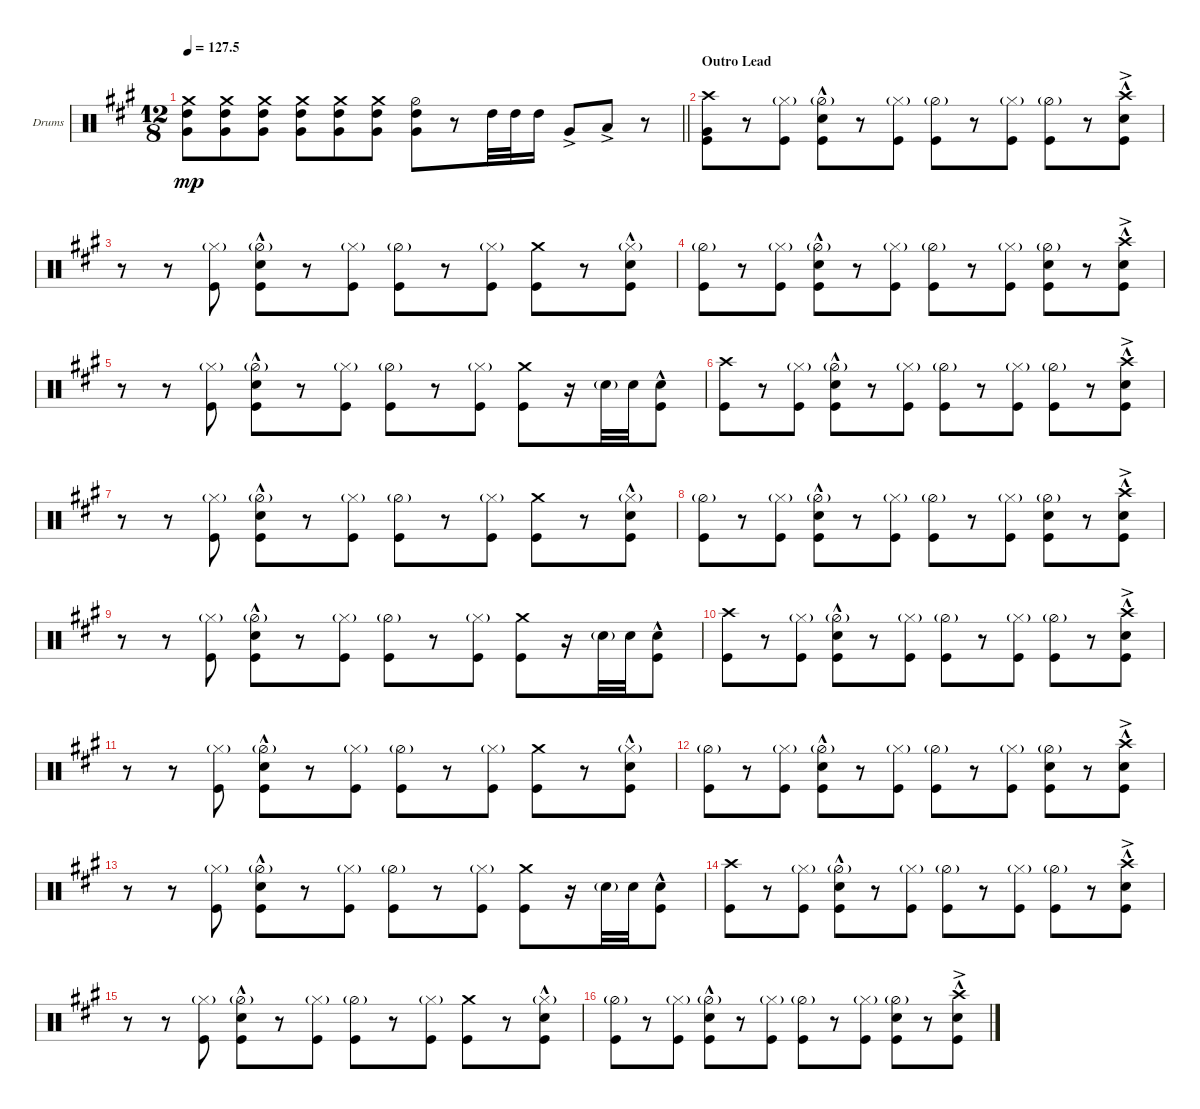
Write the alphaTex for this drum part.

\bracketExtendMode groupsimilarinstruments
\firstSystemTrackNameOrientation horizontal
\otherSystemsTrackNameOrientation horizontal
\track ("Drumkit" "Drums") {instrument percussion}
\staff {score}
\articulation defaults
\ts (12 8)
\tempo
127.5
\accidentals auto
\clef neutral
\ottava regular
\simile none
\scale
0.333333
\barLineRight lightlight
\ks a
("Crash medium (hit)" "High Tom (hit)" "Very Low Tom (hit)").8{dy mp} ("Crash medium (hit)" "High Tom (hit)" "Very Low Tom (hit)").8 ("Crash medium (hit)" "High Tom (hit)" "Very Low Tom (hit)").8 ("Crash medium (hit)" "High Tom (hit)" "Very Low Tom (hit)").8 ("Crash medium (hit)" "High Tom (hit)" "Very Low Tom (hit)").8 ("Crash medium (hit)" "High Tom (hit)" "Very Low Tom (hit)").8 ("High Tom (hit)" "Very Low Tom (hit)" "Hi-Hat (half)").8 r.8 "High Tom (hit)".32 "High Tom (hit)".32 "High Tom (hit)".16 "Very Low Tom (hit)"{ac}.8 "Low Tom (hit)"{ac}.8 r.8 |
\section ("" "Outro Lead")
\scale
0.333333 ("Kick (hit)" "Crash high (hit)" "Very Low Tom (hit)").8 r.8 ("Kick (hit)" "Hi-Hat (closed)"{g}).8 ("Kick (hit)" "Hi-Hat (half)"{g} "Snare (hit) 2"{hac}).8 r.8 ("Kick (hit)" "Hi-Hat (closed)"{g}).8 ("Kick (hit)" "Hi-Hat (half)"{g}).8 r.8 ("Kick (hit)" "Hi-Hat (closed)"{g}).8 ("Kick (hit)" "Hi-Hat (half)"{g}).8 r.8 ("Kick (hit)" "Snare (hit) 2"{hac} "Crash high (hit)"{ac}).8 |
\scale
0.333333 r.8 r.8 ("Kick (hit)" "Hi-Hat (closed)"{g}).8 ("Kick (hit)" "Hi-Hat (half)"{g} "Snare (hit) 2"{hac}).8 r.8 ("Kick (hit)" "Hi-Hat (closed)"{g}).8 ("Kick (hit)" "Hi-Hat (half)"{g}).8 r.8 ("Kick (hit)" "Hi-Hat (closed)"{g}).8 ("Kick (hit)" "Crash medium (hit)").8 r.8 ("Kick (hit)" "Hi-Hat (closed)"{g} "Snare (hit) 2"{hac}).8 |
\scale
0.333333 ("Kick (hit)" "Hi-Hat (half)"{g}).8 r.8 ("Kick (hit)" "Hi-Hat (closed)"{g}).8 ("Kick (hit)" "Hi-Hat (half)"{g} "Snare (hit) 2"{hac}).8 r.8 ("Kick (hit)" "Hi-Hat (closed)"{g}).8 ("Kick (hit)" "Hi-Hat (half)"{g}).8 r.8 ("Kick (hit)" "Hi-Hat (closed)"{g}).8 ("Kick (hit)" "Hi-Hat (half)"{g} "Snare (hit) 2").8 r.8 ("Kick (hit)" "Snare (hit) 2"{hac} "Crash high (hit)"{ac}).8 |
\scale
0.333333 r.8 r.8 ("Kick (hit)" "Hi-Hat (closed)"{g}).8 ("Kick (hit)" "Hi-Hat (half)"{g} "Snare (hit) 2"{hac}).8 r.8 ("Kick (hit)" "Hi-Hat (closed)"{g}).8 ("Kick (hit)" "Hi-Hat (half)"{g}).8 r.8 ("Kick (hit)" "Hi-Hat (closed)"{g}).8 ("Kick (hit)" "Crash medium (hit)").8 r.16 "Snare (hit) 2"{g}.32 "Snare (hit) 2".32 ("Kick (hit)" "Snare (hit) 2"{hac}).8 |
\scale
0.333333 ("Kick (hit)" "Crash high (hit)").8 r.8 ("Kick (hit)" "Hi-Hat (closed)"{g}).8 ("Kick (hit)" "Hi-Hat (half)"{g} "Snare (hit) 2"{hac}).8 r.8 ("Kick (hit)" "Hi-Hat (closed)"{g}).8 ("Kick (hit)" "Hi-Hat (half)"{g}).8 r.8 ("Kick (hit)" "Hi-Hat (closed)"{g}).8 ("Kick (hit)" "Hi-Hat (half)"{g}).8 r.8 ("Kick (hit)" "Snare (hit) 2"{hac} "Crash high (hit)"{ac}).8 |
\scale
0.333333 r.8 r.8 ("Kick (hit)" "Hi-Hat (closed)"{g}).8 ("Kick (hit)" "Hi-Hat (half)"{g} "Snare (hit) 2"{hac}).8 r.8 ("Kick (hit)" "Hi-Hat (closed)"{g}).8 ("Kick (hit)" "Hi-Hat (half)"{g}).8 r.8 ("Kick (hit)" "Hi-Hat (closed)"{g}).8 ("Kick (hit)" "Crash medium (hit)").8 r.8 ("Kick (hit)" "Hi-Hat (closed)"{g} "Snare (hit) 2"{hac}).8 |
\scale
0.333333 ("Kick (hit)" "Hi-Hat (half)"{g}).8 r.8 ("Kick (hit)" "Hi-Hat (closed)"{g}).8 ("Kick (hit)" "Hi-Hat (half)"{g} "Snare (hit) 2"{hac}).8 r.8 ("Kick (hit)" "Hi-Hat (closed)"{g}).8 ("Kick (hit)" "Hi-Hat (half)"{g}).8 r.8 ("Kick (hit)" "Hi-Hat (closed)"{g}).8 ("Kick (hit)" "Hi-Hat (half)"{g} "Snare (hit) 2").8 r.8 ("Kick (hit)" "Snare (hit) 2"{hac} "Crash high (hit)"{ac}).8 |
\scale
0.333333 r.8 r.8 ("Kick (hit)" "Hi-Hat (closed)"{g}).8 ("Kick (hit)" "Hi-Hat (half)"{g} "Snare (hit) 2"{hac}).8 r.8 ("Kick (hit)" "Hi-Hat (closed)"{g}).8 ("Kick (hit)" "Hi-Hat (half)"{g}).8 r.8 ("Kick (hit)" "Hi-Hat (closed)"{g}).8 ("Kick (hit)" "Crash medium (hit)").8 r.16 "Snare (hit) 2"{g}.32 "Snare (hit) 2".32 ("Kick (hit)" "Snare (hit) 2"{hac}).8 |
\scale
0.333333 ("Kick (hit)" "Crash high (hit)").8 r.8 ("Kick (hit)" "Hi-Hat (closed)"{g}).8 ("Kick (hit)" "Hi-Hat (half)"{g} "Snare (hit) 2"{hac}).8 r.8 ("Kick (hit)" "Hi-Hat (closed)"{g}).8 ("Kick (hit)" "Hi-Hat (half)"{g}).8 r.8 ("Kick (hit)" "Hi-Hat (closed)"{g}).8 ("Kick (hit)" "Hi-Hat (half)"{g}).8 r.8 ("Kick (hit)" "Snare (hit) 2"{hac} "Crash high (hit)"{ac}).8 |
\scale
0.333333 r.8 r.8 ("Kick (hit)" "Hi-Hat (closed)"{g}).8 ("Kick (hit)" "Hi-Hat (half)"{g} "Snare (hit) 2"{hac}).8 r.8 ("Kick (hit)" "Hi-Hat (closed)"{g}).8 ("Kick (hit)" "Hi-Hat (half)"{g}).8 r.8 ("Kick (hit)" "Hi-Hat (closed)"{g}).8 ("Kick (hit)" "Crash medium (hit)").8 r.8 ("Kick (hit)" "Hi-Hat (closed)"{g} "Snare (hit) 2"{hac}).8 |
\scale
0.333333 ("Kick (hit)" "Hi-Hat (half)"{g}).8 r.8 ("Kick (hit)" "Hi-Hat (closed)"{g}).8 ("Kick (hit)" "Hi-Hat (half)"{g} "Snare (hit) 2"{hac}).8 r.8 ("Kick (hit)" "Hi-Hat (closed)"{g}).8 ("Kick (hit)" "Hi-Hat (half)"{g}).8 r.8 ("Kick (hit)" "Hi-Hat (closed)"{g}).8 ("Kick (hit)" "Hi-Hat (half)"{g} "Snare (hit) 2").8 r.8 ("Kick (hit)" "Snare (hit) 2"{hac} "Crash high (hit)"{ac}).8 |
\scale
0.333333 r.8 r.8 ("Kick (hit)" "Hi-Hat (closed)"{g}).8 ("Kick (hit)" "Hi-Hat (half)"{g} "Snare (hit) 2"{hac}).8 r.8 ("Kick (hit)" "Hi-Hat (closed)"{g}).8 ("Kick (hit)" "Hi-Hat (half)"{g}).8 r.8 ("Kick (hit)" "Hi-Hat (closed)"{g}).8 ("Kick (hit)" "Crash medium (hit)").8 r.16 "Snare (hit) 2"{g}.32 "Snare (hit) 2".32 ("Kick (hit)" "Snare (hit) 2"{hac}).8 |
\scale
0.333333 ("Kick (hit)" "Crash high (hit)").8 r.8 ("Kick (hit)" "Hi-Hat (closed)"{g}).8 ("Kick (hit)" "Hi-Hat (half)"{g} "Snare (hit) 2"{hac}).8 r.8 ("Kick (hit)" "Hi-Hat (closed)"{g}).8 ("Kick (hit)" "Hi-Hat (half)"{g}).8 r.8 ("Kick (hit)" "Hi-Hat (closed)"{g}).8 ("Kick (hit)" "Hi-Hat (half)"{g}).8 r.8 ("Kick (hit)" "Snare (hit) 2"{hac} "Crash high (hit)"{ac}).8 |
\scale
0.333333 r.8 r.8 ("Kick (hit)" "Hi-Hat (closed)"{g}).8 ("Kick (hit)" "Hi-Hat (half)"{g} "Snare (hit) 2"{hac}).8 r.8 ("Kick (hit)" "Hi-Hat (closed)"{g}).8 ("Kick (hit)" "Hi-Hat (half)"{g}).8 r.8 ("Kick (hit)" "Hi-Hat (closed)"{g}).8 ("Kick (hit)" "Crash medium (hit)").8 r.8 ("Kick (hit)" "Hi-Hat (closed)"{g} "Snare (hit) 2"{hac}).8 |
\scale
0.333333 ("Kick (hit)" "Hi-Hat (half)"{g}).8 r.8 ("Kick (hit)" "Hi-Hat (closed)"{g}).8 ("Kick (hit)" "Hi-Hat (half)"{g} "Snare (hit) 2"{hac}).8 r.8 ("Kick (hit)" "Hi-Hat (closed)"{g}).8 ("Kick (hit)" "Hi-Hat (half)"{g}).8 r.8 ("Kick (hit)" "Hi-Hat (closed)"{g}).8 ("Kick (hit)" "Hi-Hat (half)"{g} "Snare (hit) 2").8 r.8 ("Kick (hit)" "Snare (hit) 2"{hac} "Crash high (hit)"{ac}).8
